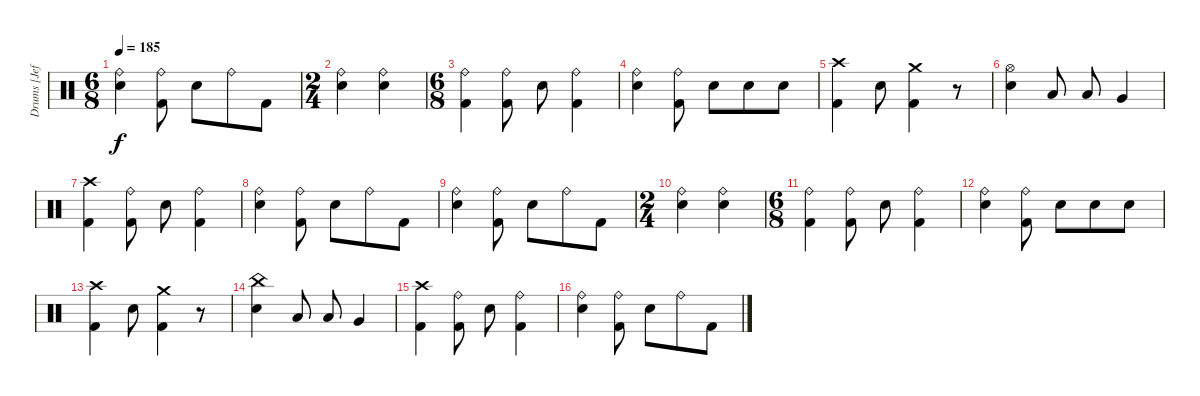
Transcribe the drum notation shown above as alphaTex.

\track ("Drums [Jeff]" "Drums [Jef") {instrument percussion}
\staff {score}
\articulation defaults
\ts (6 8)
\tempo 185
\clef neutral
\ks c
("Ride (bell)" "Electric Snare (hit)").4{dy f} ("Ride (bell)" "Kick (hit) 2").8 "Electric Snare (hit)".8 "Ride (bell)".8 "Kick (hit) 2".8 |
\ts (2 4)
("Ride (bell)" "Electric Snare (hit)").4 ("Ride (bell)" "Electric Snare (hit)").4 |
\ts (6 8)
("Ride (bell)" "Kick (hit) 2").4 ("Ride (bell)" "Kick (hit) 2").8 "Electric Snare (hit)".8 ("Ride (bell)" "Kick (hit) 2").4 |
("Ride (bell)" "Electric Snare (hit)").4 ("Ride (bell)" "Kick (hit) 2").8 "Electric Snare (hit)".8 "Electric Snare (hit)".8 "Electric Snare (hit)".8 |
("Crash high (hit)" "Kick (hit) 2").4 "Electric Snare (hit)".8 ("Crash medium (hit)" "Kick (hit) 2").4 r.8 |
("Hi-Hat (open)" "Electric Snare (hit)").4 "Low Tom (hit)".8 "Low Tom (hit)".8 "Very Low Tom (hit)".4 |
("Crash high (hit)" "Kick (hit) 2").4 ("Ride (bell)" "Kick (hit) 2").8 "Electric Snare (hit)".8 ("Ride (bell)" "Kick (hit) 2").4 |
("Ride (bell)" "Electric Snare (hit)").4 ("Ride (bell)" "Kick (hit) 2").8 "Electric Snare (hit)".8 "Ride (bell)".8 "Kick (hit) 2".8 |
("Ride (bell)" "Electric Snare (hit)").4 ("Ride (bell)" "Kick (hit) 2").8 "Electric Snare (hit)".8 "Ride (bell)".8 "Kick (hit) 2".8 |
\ts (2 4)
("Ride (bell)" "Electric Snare (hit)").4 ("Ride (bell)" "Electric Snare (hit)").4 |
\ts (6 8)
("Ride (bell)" "Kick (hit) 2").4 ("Ride (bell)" "Kick (hit) 2").8 "Electric Snare (hit)".8 ("Ride (bell)" "Kick (hit) 2").4 |
("Ride (bell)" "Electric Snare (hit)").4 ("Ride (bell)" "Kick (hit) 2").8 "Electric Snare (hit)".8 "Electric Snare (hit)".8 "Electric Snare (hit)".8 |
("Crash high (hit)" "Kick (hit) 2").4 "Electric Snare (hit)".8 ("Crash medium (hit)" "Kick (hit) 2").4 r.8 |
("China (hit)" "Electric Snare (hit)").4 "Low Tom (hit)".8 "Low Tom (hit)".8 "Very Low Tom (hit)".4 |
("Crash high (hit)" "Kick (hit) 2").4 ("Ride (bell)" "Kick (hit) 2").8 "Electric Snare (hit)".8 ("Ride (bell)" "Kick (hit) 2").4 |
("Ride (bell)" "Electric Snare (hit)").4 ("Ride (bell)" "Kick (hit) 2").8 "Electric Snare (hit)".8 "Ride (bell)".8 "Kick (hit) 2".8
